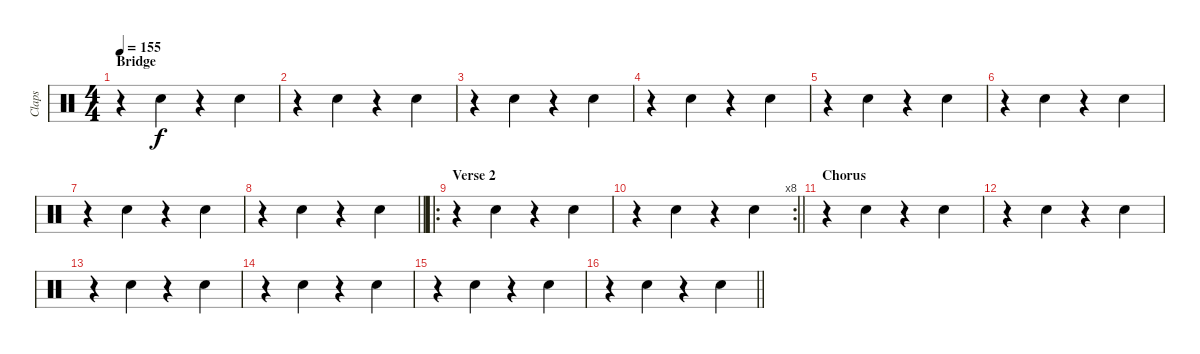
\track ("Claps" "Claps") {instrument percussion}
\staff {score}
\articulation defaults
\ts (4 4)
\section ("" "Bridge")
\tempo 155
\clef neutral
\ks c
r.4{dy f} "Hand Clap (hit)".4 r.4 "Hand Clap (hit)".4 |
r.4 "Hand Clap (hit)".4 r.4 "Hand Clap (hit)".4 |
r.4 "Hand Clap (hit)".4 r.4 "Hand Clap (hit)".4 |
r.4 "Hand Clap (hit)".4 r.4 "Hand Clap (hit)".4 |
r.4 "Hand Clap (hit)".4 r.4 "Hand Clap (hit)".4 |
r.4 "Hand Clap (hit)".4 r.4 "Hand Clap (hit)".4 |
r.4 "Hand Clap (hit)".4 r.4 "Hand Clap (hit)".4 |
\barLineRight lightlight
r.4 "Hand Clap (hit)".4 r.4 "Hand Clap (hit)".4 |
\ro
\section ("" "Verse 2")
r.4{volume 13} "Hand Clap (hit)".4 r.4 "Hand Clap (hit)".4 |
\rc 8
\barLineRight lightlight
r.4 "Hand Clap (hit)".4 r.4 "Hand Clap (hit)".4 |
\section ("" "Chorus")
r.4 "Hand Clap (hit)".4 r.4 "Hand Clap (hit)".4 |
r.4 "Hand Clap (hit)".4 r.4 "Hand Clap (hit)".4 |
r.4 "Hand Clap (hit)".4 r.4 "Hand Clap (hit)".4 |
r.4 "Hand Clap (hit)".4 r.4 "Hand Clap (hit)".4 |
r.4 "Hand Clap (hit)".4 r.4 "Hand Clap (hit)".4 |
\barLineRight lightlight
r.4 "Hand Clap (hit)".4 r.4 "Hand Clap (hit)".4
